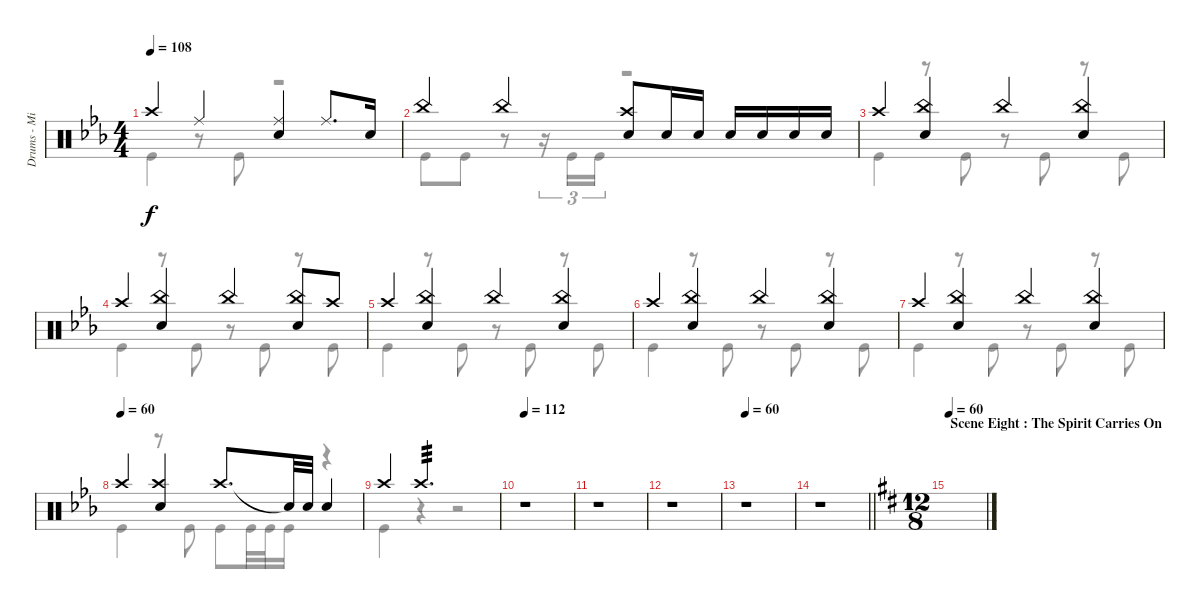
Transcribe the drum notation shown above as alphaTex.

\track ("Drums - Mike Portnoy" "Drums - Mi") {instrument percussion}
\staff {score}
\articulation defaults
\voice
\ts (4 4)
\tempo 108
\clef neutral
\ks eb "Crash high (hit)".4{dy f} "Ride (middle)".4
("Ride (middle)" "Snare (hit) 2").4 "Ride (middle)".8{d} "Snare (hit) 2".16 |
"China (hit)".4 "China (hit)".4 ("Crash high (hit)" "Snare (hit) 2").8 "Snare (hit) 2".16 "Snare (hit) 2".16 "Snare (hit) 2".16 "Snare (hit) 2".16 "Snare (hit) 2".16 "Snare (hit) 2".16 |
"Crash high (hit)".4 ("China (hit)" "Snare (hit) 2").4 "China (hit)".4 ("China (hit)" "Snare (hit) 2").4 |
"Crash high (hit)".4 ("China (hit)" "Snare (hit) 2").4 "China (hit)".4 ("China (hit)" "Snare (hit) 2").8 "Crash high (hit)".8 |
"Crash high (hit)".4 ("China (hit)" "Snare (hit) 2").4 "China (hit)".4 ("China (hit)" "Snare (hit) 2").4 |
"Crash high (hit)".4 ("China (hit)" "Snare (hit) 2").4 "China (hit)".4 ("China (hit)" "Snare (hit) 2").4 |
"Crash high (hit)".4 ("China (hit)" "Snare (hit) 2").4 "China (hit)".4 ("China (hit)" "Snare (hit) 2").4 |
\tempo (60)
"Crash high (hit)".4 ("Crash high (hit)" "Snare (hit) 2").4 "Crash high (hit)".8{d} "Snare (hit)"{t}.32 "Snare (hit) 2".32 "Snare (hit) 2".4 |
"Crash high (hit)".4 "Crash high (hit)".2{d tp 3 volume 0} |
\tempo 112
r.1 |
r.1 |
r.1 |
\tempo 60
r.1 |
\barLineRight lightlight
r.1 |
\ts (12 8)
\section ("" "Scene Eight : The Spirit Carries On")
\tempo 60
\ks d
|
\voice
\clef neutral
\ottava regular
\simile none
\ks eb "Kick (hit)".4{dy f}
r.8 "Kick (hit)".8 r.2 |
"Kick (hit)".8 "Kick (hit)".8 r.8 r.16{tu (3 2)} "Kick (hit)".16{tu (3 2)} "Kick (hit)".16{tu (3 2)} r.2 |
"Kick (hit)".4 r.8 "Kick (hit)".8 r.8 "Kick (hit)".8 r.8 "Kick (hit)".8 |
"Kick (hit)".4 r.8 "Kick (hit)".8 r.8 "Kick (hit)".8 r.8 "Kick (hit)".8 |
"Kick (hit)".4 r.8 "Kick (hit)".8 r.8 "Kick (hit)".8 r.8 "Kick (hit)".8 |
"Kick (hit)".4 r.8 "Kick (hit)".8 r.8 "Kick (hit)".8 r.8 "Kick (hit)".8 |
"Kick (hit)".4 r.8 "Kick (hit)".8 r.8 "Kick (hit)".8 r.8 "Kick (hit)".8 |
"Kick (hit)".4 r.8 "Kick (hit)".8 "Kick (hit)".8 "Kick (hit)".32 "Kick (hit)".32 "Kick (hit)".16 r.4 |
"Kick (hit)".4 r.4 r.2 |
|
|
|
|
\barLineRight lightlight
|
\ks d
|
